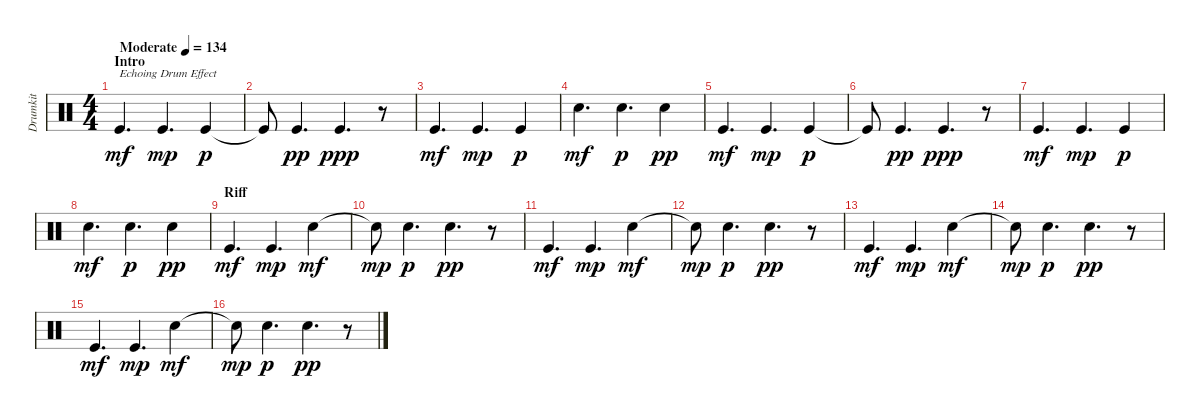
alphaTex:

\track ("Drumkit" "Drumkit") {instrument percussion}
\staff {score}
\articulation defaults
\ts (4 4)
\section ("" "Intro")
\tempo (134 "Moderate")
\clef neutral
\ks c "Kick (hit)".4{d txt "Echoing Drum Effect" dy mf} "Kick (hit)".4{d dy mp} "Kick (hit)".4{dy p}
|
"Kick (hit)"{t}.8 "Kick (hit)".4{d dy pp} "Kick (hit)".4{d dy ppp} r.8 |
"Kick (hit)".4{d dy mf} "Kick (hit)".4{d dy mp} "Kick (hit)".4{dy p} |
"Snare (hit) 2".4{d dy mf} "Snare (hit) 2".4{d dy p} "Snare (hit) 2".4{dy pp} |
"Kick (hit)".4{d dy mf} "Kick (hit)".4{d dy mp} "Kick (hit)".4{dy p} |
"Kick (hit)"{t}.8 "Kick (hit)".4{d dy pp} "Kick (hit)".4{d dy ppp} r.8 |
"Kick (hit)".4{d dy mf} "Kick (hit)".4{d dy mp} "Kick (hit)".4{dy p} |
"Snare (hit) 2".4{d dy mf} "Snare (hit) 2".4{d dy p} "Snare (hit) 2".4{dy pp} |
\section ("" "Riff")
"Kick (hit)".4{d dy mf} "Kick (hit)".4{d dy mp} "Snare (hit) 2".4{dy mf} |
"Snare (hit) 2"{t}.8{dy mp} "Snare (hit) 2".4{d dy p} "Snare (hit) 2".4{d dy pp} r.8 |
"Kick (hit)".4{d dy mf} "Kick (hit)".4{d dy mp} "Snare (hit) 2".4{dy mf} |
"Snare (hit) 2"{t}.8{dy mp} "Snare (hit) 2".4{d dy p} "Snare (hit) 2".4{d dy pp} r.8 |
"Kick (hit)".4{d dy mf} "Kick (hit)".4{d dy mp} "Snare (hit) 2".4{dy mf} |
"Snare (hit) 2"{t}.8{dy mp} "Snare (hit) 2".4{d dy p} "Snare (hit) 2".4{d dy pp} r.8 |
"Kick (hit)".4{d dy mf} "Kick (hit)".4{d dy mp} "Snare (hit) 2".4{dy mf} |
"Snare (hit) 2"{t}.8{dy mp} "Snare (hit) 2".4{d dy p} "Snare (hit) 2".4{d dy pp} r.8
